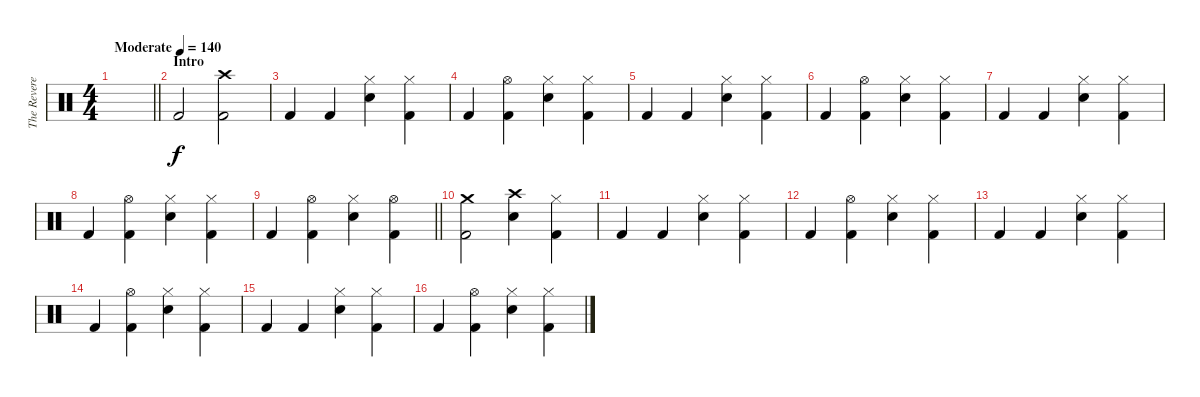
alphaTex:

\track ("The Reverend" "The Revere") {instrument percussion}
\staff {score}
\articulation defaults
\ts (4 4)
\tempo (140 "Moderate")
\clef neutral
\barLineRight lightlight
\ks c
|
\section ("" "Intro")
"Kick (hit) 2".2 ("Crash high (hit)" "Kick (hit) 2").2 |
"Kick (hit) 2".4 "Kick (hit) 2".4 ("Hi-Hat (closed)" "Snare (hit) 2").4 ("Hi-Hat (closed)" "Kick (hit) 2").4 |
"Kick (hit) 2".4 ("Hi-Hat (open)" "Kick (hit) 2").4 ("Hi-Hat (closed)" "Snare (hit) 2").4 ("Hi-Hat (closed)" "Kick (hit) 2").4 |
"Kick (hit) 2".4 "Kick (hit) 2".4 ("Hi-Hat (closed)" "Snare (hit) 2").4 ("Hi-Hat (closed)" "Kick (hit) 2").4 |
"Kick (hit) 2".4 ("Hi-Hat (open)" "Kick (hit) 2").4 ("Hi-Hat (closed)" "Snare (hit) 2").4 ("Hi-Hat (closed)" "Kick (hit) 2").4 |
"Kick (hit) 2".4 "Kick (hit) 2".4 ("Hi-Hat (closed)" "Snare (hit) 2").4 ("Hi-Hat (closed)" "Kick (hit) 2").4 |
"Kick (hit) 2".4 ("Hi-Hat (open)" "Kick (hit) 2").4 ("Hi-Hat (closed)" "Snare (hit) 2").4 ("Hi-Hat (closed)" "Kick (hit) 2").4 |
\barLineRight lightlight "Kick (hit) 2".4
("Hi-Hat (open)" "Kick (hit) 2").4 ("Hi-Hat (closed)" "Snare (hit) 2").4 ("Hi-Hat (open)" "Kick (hit) 2").4 |
("Crash medium (hit)" "Kick (hit) 2").2 ("Crash high (hit)" "Snare (hit) 2").4 ("Hi-Hat (closed)" "Kick (hit) 2").4 |
"Kick (hit) 2".4 "Kick (hit) 2".4 ("Hi-Hat (closed)" "Snare (hit) 2").4 ("Hi-Hat (closed)" "Kick (hit) 2").4 |
"Kick (hit) 2".4 ("Hi-Hat (open)" "Kick (hit) 2").4 ("Hi-Hat (closed)" "Snare (hit) 2").4 ("Hi-Hat (closed)" "Kick (hit) 2").4 |
"Kick (hit) 2".4 "Kick (hit) 2".4 ("Hi-Hat (closed)" "Snare (hit) 2").4 ("Hi-Hat (closed)" "Kick (hit) 2").4 |
"Kick (hit) 2".4 ("Hi-Hat (open)" "Kick (hit) 2").4 ("Hi-Hat (closed)" "Snare (hit) 2").4 ("Hi-Hat (closed)" "Kick (hit) 2").4 |
"Kick (hit) 2".4 "Kick (hit) 2".4 ("Hi-Hat (closed)" "Snare (hit) 2").4 ("Hi-Hat (closed)" "Kick (hit) 2").4 |
"Kick (hit) 2".4 ("Hi-Hat (open)" "Kick (hit) 2").4 ("Hi-Hat (closed)" "Snare (hit) 2").4 ("Hi-Hat (closed)" "Kick (hit) 2").4
